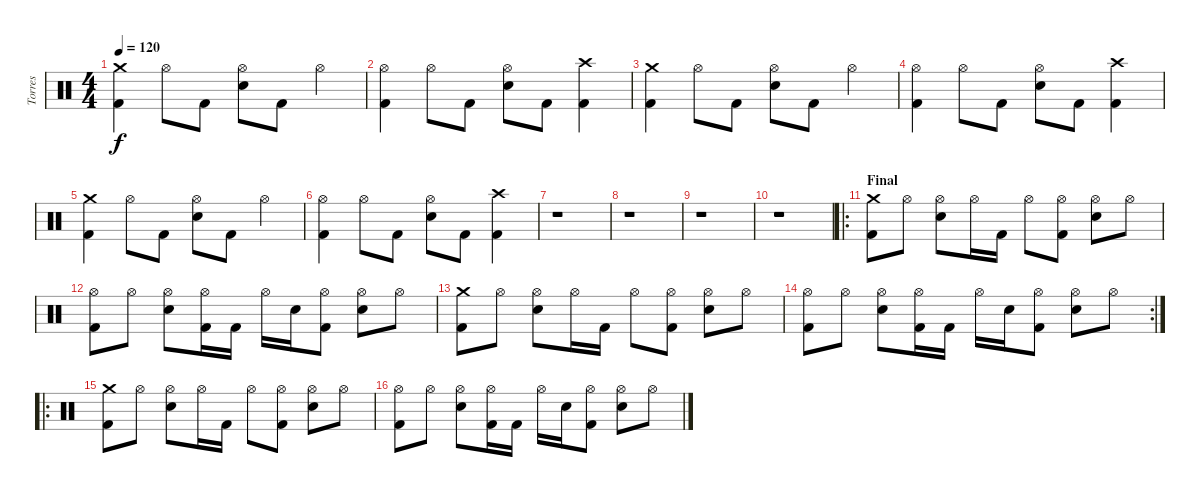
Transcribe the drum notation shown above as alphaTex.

\track ("Torres" "Torres") {instrument percussion}
\staff {score}
\articulation defaults
\ts (4 4)
\tempo 120
\clef neutral
\ks c
("Crash medium (hit)" "Kick (hit) 2").4{dy f} "Hi-Hat (open)".8 "Kick (hit) 2".8 ("Hi-Hat (open)" "Electric Snare (hit)").8 "Kick (hit) 2".8 "Hi-Hat (open)".4 |
("Hi-Hat (open)" "Kick (hit) 2").4 "Hi-Hat (open)".8 "Kick (hit) 2".8 ("Hi-Hat (open)" "Electric Snare (hit)").8 "Kick (hit) 2".8 ("Crash high (hit)" "Kick (hit) 2").4 |
("Crash medium (hit)" "Kick (hit) 2").4 "Hi-Hat (open)".8 "Kick (hit) 2".8 ("Hi-Hat (open)" "Electric Snare (hit)").8 "Kick (hit) 2".8 "Hi-Hat (open)".4 |
("Hi-Hat (open)" "Kick (hit) 2").4 "Hi-Hat (open)".8 "Kick (hit) 2".8 ("Hi-Hat (open)" "Electric Snare (hit)").8 "Kick (hit) 2".8 ("Crash high (hit)" "Kick (hit) 2").4 |
("Crash medium (hit)" "Kick (hit) 2").4 "Hi-Hat (open)".8 "Kick (hit) 2".8 ("Hi-Hat (open)" "Electric Snare (hit)").8 "Kick (hit) 2".8 "Hi-Hat (open)".4 |
("Hi-Hat (open)" "Kick (hit) 2").4 "Hi-Hat (open)".8 "Kick (hit) 2".8 ("Hi-Hat (open)" "Electric Snare (hit)").8 "Kick (hit) 2".8 ("Crash high (hit)" "Kick (hit) 2").4 |
r.1 |
r.1 |
r.1 |
r.1 |
\ro
\section ("" "Final")
("Crash medium (hit)" "Kick (hit) 2").8 "Hi-Hat (open)".8 ("Hi-Hat (open)" "Electric Snare (hit)").8 "Hi-Hat (open)".16 "Kick (hit) 2".16 "Hi-Hat (open)".8 ("Hi-Hat (open)" "Kick (hit) 2").8 ("Hi-Hat (open)" "Electric Snare (hit)").8 "Hi-Hat (open)".8 |
("Hi-Hat (open)" "Kick (hit) 2").8 "Hi-Hat (open)".8 ("Hi-Hat (open)" "Electric Snare (hit)").8 ("Hi-Hat (open)" "Kick (hit) 2").16 "Kick (hit) 2".16 "Hi-Hat (open)".16 "Electric Snare (hit)".16 ("Hi-Hat (open)" "Kick (hit) 2").8 ("Hi-Hat (open)" "Electric Snare (hit)").8 "Hi-Hat (open)".8 |
("Crash medium (hit)" "Kick (hit) 2").8 "Hi-Hat (open)".8 ("Hi-Hat (open)" "Electric Snare (hit)").8 "Hi-Hat (open)".16 "Kick (hit) 2".16 "Hi-Hat (open)".8 ("Hi-Hat (open)" "Kick (hit) 2").8 ("Hi-Hat (open)" "Electric Snare (hit)").8 "Hi-Hat (open)".8 |
\rc 2
("Hi-Hat (open)" "Kick (hit) 2").8 "Hi-Hat (open)".8 ("Hi-Hat (open)" "Electric Snare (hit)").8 ("Hi-Hat (open)" "Kick (hit) 2").16 "Kick (hit) 2".16 "Hi-Hat (open)".16 "Electric Snare (hit)".16 ("Hi-Hat (open)" "Kick (hit) 2").8 ("Hi-Hat (open)" "Electric Snare (hit)").8 "Hi-Hat (open)".8 |
\ro
("Crash medium (hit)" "Kick (hit) 2").8 "Hi-Hat (open)".8 ("Hi-Hat (open)" "Electric Snare (hit)").8 "Hi-Hat (open)".16 "Kick (hit) 2".16 "Hi-Hat (open)".8 ("Hi-Hat (open)" "Kick (hit) 2").8 ("Hi-Hat (open)" "Electric Snare (hit)").8 "Hi-Hat (open)".8 |
("Hi-Hat (open)" "Kick (hit) 2").8 "Hi-Hat (open)".8 ("Hi-Hat (open)" "Electric Snare (hit)").8 ("Hi-Hat (open)" "Kick (hit) 2").16 "Kick (hit) 2".16 "Hi-Hat (open)".16 "Electric Snare (hit)".16 ("Hi-Hat (open)" "Kick (hit) 2").8 ("Hi-Hat (open)" "Electric Snare (hit)").8 "Hi-Hat (open)".8
